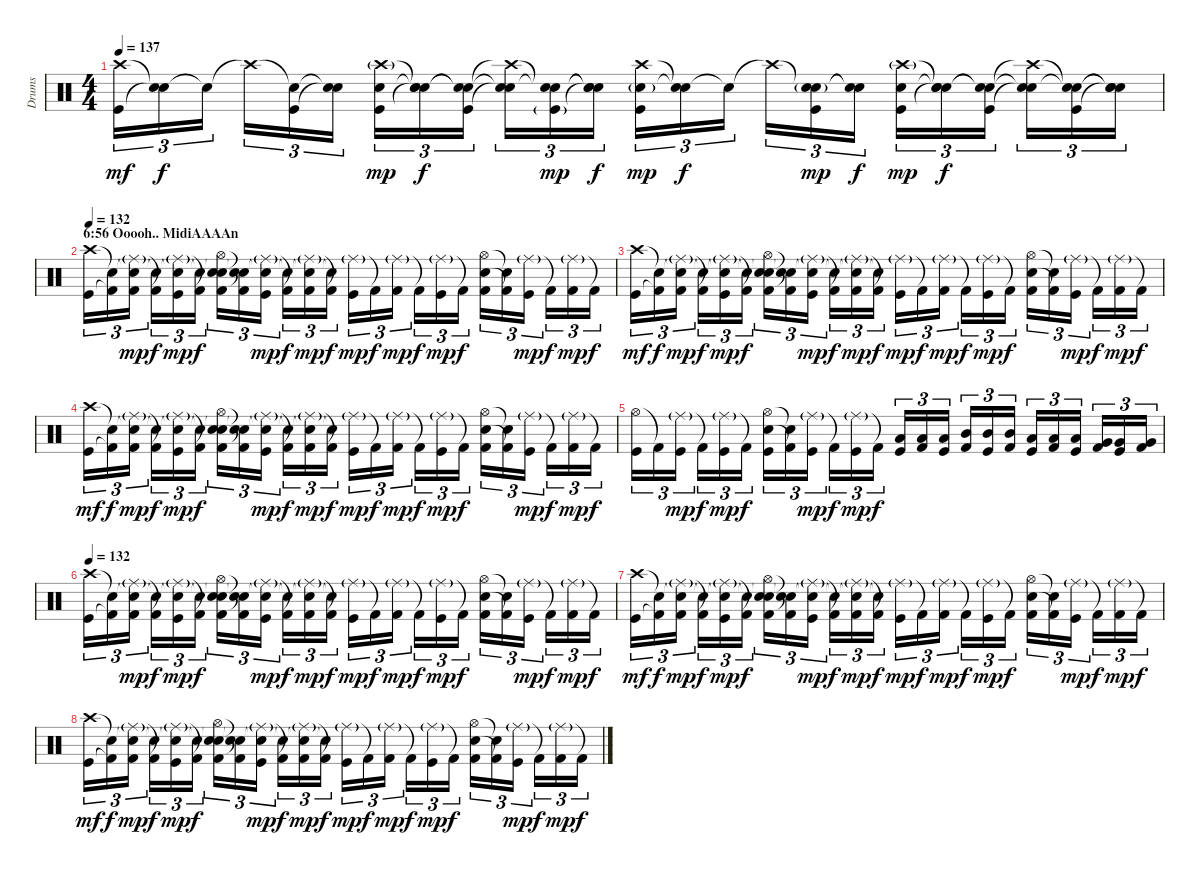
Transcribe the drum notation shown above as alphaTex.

\track ("Drums" "Drums") {instrument percussion}
\staff {score}
\articulation defaults
\ts (4 4)
\tempo 137
\clef neutral
\ks c
("Crash high (hit)" "Kick (hit)").16{tu (3 2) dy mf} ("Snare (hit)"{t} "Snare (hit)"{t}).16{tu (3 2) dy f} "Snare (hit)"{t}.16{tu (3 2)} "Crash high (hit)"{t}.16{tu (3 2)} ("Snare (hit)"{t} "Kick (hit)").16{tu (3 2)} ("Snare (hit)"{t} "Snare (hit)"{t}).16{tu (3 2)} ("Crash high (hit)"{g} "Snare (hit) 2" "Kick (hit)").16{tu (3 2) dy mp} ("Snare (hit)"{t} "Snare (hit)"{t} "Snare (hit)"{t}).16{tu (3 2) dy f} ("Snare (hit)"{t} "Snare (hit)"{t} "Kick (hit)").16{tu (3 2)} ("Crash high (hit)"{t} "Snare (hit)"{t} "Snare (hit)"{t}).16{tu (3 2)} ("Snare (hit)"{t} "Snare (hit)"{t} "Kick (hit)"{g}).16{tu (3 2) dy mp} ("Snare (hit)"{t} "Snare (hit)"{t} "Snare (hit)"{t}).16{tu (3 2) dy f} ("Crash high (hit)" "Snare (hit) 2"{g} "Kick (hit)").16{tu (3 2) dy mp} ("Snare (hit)"{t} "Snare (hit)"{t}).16{tu (3 2) dy f} "Snare (hit)"{t}.16{tu (3 2)} "Crash high (hit)"{t}.16{tu (3 2)} ("Snare (hit)"{t} "Snare (hit) 2"{g} "Kick (hit)").16{tu (3 2) dy mp} ("Snare (hit)"{t} "Snare (hit)"{t}).16{tu (3 2) dy f} ("Crash high (hit)"{g} "Snare (hit) 2" "Kick (hit)").16{tu (3 2) dy mp} ("Snare (hit)"{t} "Snare (hit)"{t} "Snare (hit)"{t}).16{tu (3 2) dy f} ("Snare (hit)"{t} "Snare (hit)"{t} "Kick (hit)").16{tu (3 2)} ("Crash high (hit)"{t} "Snare (hit)"{t} "Snare (hit)"{t}).16{tu (3 2)} ("Snare (hit)"{t} "Snare (hit) 2"{t} "Kick (hit)").16{tu (3 2)} ("Snare (hit)"{t} "Snare (hit)"{t} "Snare (hit)"{t}).16{tu (3 2)} |
\section ("" "6:56 Ooooh.. MidiAAAAn")
\tempo 132
("Crash high (hit)" "Kick (hit)").16{tu (3 2)} ("Snare (hit)"{t} "Kick (hit) 2"{t}).16{tu (3 2)} ("Snare (hit)"{t} "Ride (middle)"{g} "Kick (hit) 2").16{tu (3 2) dy mp} ("Snare (hit)"{t} "Kick (hit) 2"{t}).16{tu (3 2) dy f} ("Snare (hit)"{t} "Ride (middle)"{g} "Kick (hit)").16{tu (3 2) dy mp} ("Snare (hit)"{t} "Kick (hit) 2"{t}).16{tu (3 2) dy f} ("Snare (hit)"{t} "Hi-Hat (open)" "Snare (hit) 2" "Kick (hit) 2").16{tu (3 2)} ("Snare (hit)"{t} "Snare (hit)"{t} "Kick (hit) 2"{t}).16{tu (3 2)} ("Snare (hit)"{t} "Ride (middle)"{g} "Kick (hit)").16{tu (3 2) dy mp} ("Snare (hit)"{t} "Kick (hit) 2"{t}).16{tu (3 2) dy f} ("Snare (hit)"{t} "Ride (middle)"{g} "Kick (hit) 2").16{tu (3 2) dy mp} ("Snare (hit)"{t} "Kick (hit) 2"{t}).16{tu (3 2) dy f} ("Ride (middle)"{g} "Kick (hit)").16{tu (3 2) dy mp} "Kick (hit) 2"{t}.16{tu (3 2) dy f} ("Ride (middle)"{g} "Kick (hit) 2").16{tu (3 2) dy mp} "Kick (hit) 2"{t}.16{tu (3 2) dy f} ("Ride (middle)"{g} "Kick (hit)").16{tu (3 2) dy mp} "Kick (hit) 2"{t}.16{tu (3 2) dy f} ("Hi-Hat (open)" "Snare (hit) 2" "Kick (hit) 2").16{tu (3 2)} ("Snare (hit)"{t} "Kick (hit) 2"{t}).16{tu (3 2)} ("Ride (middle)"{g} "Kick (hit)").16{tu (3 2) dy mp} "Kick (hit) 2"{t}.16{tu (3 2) dy f} ("Ride (middle)"{g} "Kick (hit) 2").16{tu (3 2) dy mp} "Kick (hit) 2"{t}.16{tu (3 2) dy f} |
("Crash high (hit)" "Kick (hit)").16{tu (3 2) dy mf} ("Snare (hit)"{t} "Kick (hit) 2"{t}).16{tu (3 2) dy f} ("Snare (hit)"{t} "Ride (middle)"{g} "Kick (hit) 2").16{tu (3 2) dy mp} ("Snare (hit)"{t} "Kick (hit) 2"{t}).16{tu (3 2) dy f} ("Snare (hit)"{t} "Ride (middle)"{g} "Kick (hit)").16{tu (3 2) dy mp} ("Snare (hit)"{t} "Kick (hit) 2"{t}).16{tu (3 2) dy f} ("Snare (hit)"{t} "Hi-Hat (open)" "Snare (hit) 2" "Kick (hit) 2").16{tu (3 2)} ("Snare (hit)"{t} "Snare (hit)"{t} "Kick (hit) 2"{t}).16{tu (3 2)} ("Snare (hit)"{t} "Ride (middle)"{g} "Kick (hit)").16{tu (3 2) dy mp} ("Snare (hit)"{t} "Kick (hit) 2"{t}).16{tu (3 2) dy f} ("Snare (hit)"{t} "Ride (middle)"{g} "Kick (hit) 2").16{tu (3 2) dy mp} ("Snare (hit)"{t} "Kick (hit) 2"{t}).16{tu (3 2) dy f} ("Ride (middle)"{g} "Kick (hit)").16{tu (3 2) dy mp} "Kick (hit) 2"{t}.16{tu (3 2) dy f} ("Ride (middle)"{g} "Kick (hit) 2").16{tu (3 2) dy mp} "Kick (hit) 2"{t}.16{tu (3 2) dy f} ("Ride (middle)"{g} "Kick (hit)").16{tu (3 2) dy mp} "Kick (hit) 2"{t}.16{tu (3 2) dy f} ("Hi-Hat (open)" "Snare (hit) 2" "Kick (hit) 2").16{tu (3 2)} ("Snare (hit)"{t} "Kick (hit) 2"{t}).16{tu (3 2)} ("Ride (middle)"{g} "Kick (hit)").16{tu (3 2) dy mp} "Kick (hit) 2"{t}.16{tu (3 2) dy f} ("Ride (middle)"{g} "Kick (hit) 2").16{tu (3 2) dy mp} "Kick (hit) 2"{t}.16{tu (3 2) dy f} |
("Crash high (hit)" "Kick (hit)").16{tu (3 2) dy mf} ("Snare (hit)"{t} "Kick (hit) 2"{t}).16{tu (3 2) dy f} ("Snare (hit)"{t} "Ride (middle)"{g} "Kick (hit) 2").16{tu (3 2) dy mp} ("Snare (hit)"{t} "Kick (hit) 2"{t}).16{tu (3 2) dy f} ("Snare (hit)"{t} "Ride (middle)"{g} "Kick (hit)").16{tu (3 2) dy mp} ("Snare (hit)"{t} "Kick (hit) 2"{t}).16{tu (3 2) dy f} ("Snare (hit)"{t} "Hi-Hat (open)" "Snare (hit) 2" "Kick (hit) 2").16{tu (3 2)} ("Snare (hit)"{t} "Snare (hit)"{t} "Kick (hit) 2"{t}).16{tu (3 2)} ("Snare (hit)"{t} "Ride (middle)"{g} "Kick (hit)").16{tu (3 2) dy mp} ("Snare (hit)"{t} "Kick (hit) 2"{t}).16{tu (3 2) dy f} ("Snare (hit)"{t} "Ride (middle)"{g} "Kick (hit) 2").16{tu (3 2) dy mp} ("Snare (hit)"{t} "Kick (hit) 2"{t}).16{tu (3 2) dy f} ("Ride (middle)"{g} "Kick (hit)").16{tu (3 2) dy mp} "Kick (hit) 2"{t}.16{tu (3 2) dy f} ("Ride (middle)"{g} "Kick (hit) 2").16{tu (3 2) dy mp} "Kick (hit) 2"{t}.16{tu (3 2) dy f} ("Ride (middle)"{g} "Kick (hit)").16{tu (3 2) dy mp} "Kick (hit) 2"{t}.16{tu (3 2) dy f} ("Hi-Hat (open)" "Snare (hit) 2" "Kick (hit) 2").16{tu (3 2)} ("Snare (hit)"{t} "Kick (hit) 2"{t}).16{tu (3 2)} ("Ride (middle)"{g} "Kick (hit)").16{tu (3 2) dy mp} "Kick (hit) 2"{t}.16{tu (3 2) dy f} ("Ride (middle)"{g} "Kick (hit) 2").16{tu (3 2) dy mp} "Kick (hit) 2"{t}.16{tu (3 2) dy f} |
("Hi-Hat (open)" "Kick (hit)").16{tu (3 2)} "Kick (hit) 2"{t}.16{tu (3 2)} ("Ride (middle)"{g} "Kick (hit)").16{tu (3 2) dy mp} "Kick (hit) 2"{t}.16{tu (3 2) dy f} ("Ride (middle)"{g} "Kick (hit)").16{tu (3 2) dy mp} "Kick (hit) 2"{t}.16{tu (3 2) dy f} ("Hi-Hat (open)" "Snare (hit) 2" "Kick (hit)").16{tu (3 2)} ("Snare (hit)"{t} "Kick (hit) 2"{t}).16{tu (3 2)} ("Ride (middle)"{g} "Kick (hit)").16{tu (3 2) dy mp} "Kick (hit) 2"{t}.16{tu (3 2) dy f} ("Ride (middle)"{g} "Kick (hit)").16{tu (3 2) dy mp} "Kick (hit) 2"{t}.16{tu (3 2) dy f} ("Low Floor Tom (hit)" "Kick (hit)").16{tu (3 2)} ("Low Floor Tom (hit)" "Kick (hit) 2").16{tu (3 2)} ("Low Floor Tom (hit)" "Kick (hit)").16{tu (3 2)} ("Mid Tom (hit)" "Kick (hit) 2").16{tu (3 2)} ("Mid Tom (hit)" "Kick (hit)").16{tu (3 2)} ("Mid Tom (hit)" "Kick (hit) 2").16{tu (3 2)} ("Low Tom (hit)" "Kick (hit)").16{tu (3 2)} ("Low Tom (hit)" "Kick (hit) 2").16{tu (3 2)} ("Low Tom (hit)" "Kick (hit)").16{tu (3 2)} ("Very Low Tom (hit)" "Kick (hit) 2").16{tu (3 2)} ("Very Low Tom (hit)" "Kick (hit)").16{tu (3 2)} ("Very Low Tom (hit)" "Kick (hit) 2").16{tu (3 2)} |
\tempo 132
("Crash high (hit)" "Kick (hit)").16{tu (3 2)} ("Snare (hit)"{t} "Kick (hit) 2"{t}).16{tu (3 2)} ("Snare (hit)"{t} "Ride (middle)"{g} "Kick (hit) 2").16{tu (3 2) dy mp} ("Snare (hit)"{t} "Kick (hit) 2"{t}).16{tu (3 2) dy f} ("Snare (hit)"{t} "Ride (middle)"{g} "Kick (hit)").16{tu (3 2) dy mp} ("Snare (hit)"{t} "Kick (hit) 2"{t}).16{tu (3 2) dy f} ("Snare (hit)"{t} "Hi-Hat (open)" "Snare (hit) 2" "Kick (hit) 2").16{tu (3 2)} ("Snare (hit)"{t} "Snare (hit)"{t} "Kick (hit) 2"{t}).16{tu (3 2)} ("Snare (hit)"{t} "Ride (middle)"{g} "Kick (hit)").16{tu (3 2) dy mp} ("Snare (hit)"{t} "Kick (hit) 2"{t}).16{tu (3 2) dy f} ("Snare (hit)"{t} "Ride (middle)"{g} "Kick (hit) 2").16{tu (3 2) dy mp} ("Snare (hit)"{t} "Kick (hit) 2"{t}).16{tu (3 2) dy f} ("Ride (middle)"{g} "Kick (hit)").16{tu (3 2) dy mp} "Kick (hit) 2"{t}.16{tu (3 2) dy f} ("Ride (middle)"{g} "Kick (hit) 2").16{tu (3 2) dy mp} "Kick (hit) 2"{t}.16{tu (3 2) dy f} ("Ride (middle)"{g} "Kick (hit)").16{tu (3 2) dy mp} "Kick (hit) 2"{t}.16{tu (3 2) dy f} ("Hi-Hat (open)" "Snare (hit) 2" "Kick (hit) 2").16{tu (3 2)} ("Snare (hit)"{t} "Kick (hit) 2"{t}).16{tu (3 2)} ("Ride (middle)"{g} "Kick (hit)").16{tu (3 2) dy mp} "Kick (hit) 2"{t}.16{tu (3 2) dy f} ("Ride (middle)"{g} "Kick (hit) 2").16{tu (3 2) dy mp} "Kick (hit) 2"{t}.16{tu (3 2) dy f} |
("Crash high (hit)" "Kick (hit)").16{tu (3 2) dy mf} ("Snare (hit)"{t} "Kick (hit) 2"{t}).16{tu (3 2) dy f} ("Snare (hit)"{t} "Ride (middle)"{g} "Kick (hit) 2").16{tu (3 2) dy mp} ("Snare (hit)"{t} "Kick (hit) 2"{t}).16{tu (3 2) dy f} ("Snare (hit)"{t} "Ride (middle)"{g} "Kick (hit)").16{tu (3 2) dy mp} ("Snare (hit)"{t} "Kick (hit) 2"{t}).16{tu (3 2) dy f} ("Snare (hit)"{t} "Hi-Hat (open)" "Snare (hit) 2" "Kick (hit) 2").16{tu (3 2)} ("Snare (hit)"{t} "Snare (hit)"{t} "Kick (hit) 2"{t}).16{tu (3 2)} ("Snare (hit)"{t} "Ride (middle)"{g} "Kick (hit)").16{tu (3 2) dy mp} ("Snare (hit)"{t} "Kick (hit) 2"{t}).16{tu (3 2) dy f} ("Snare (hit)"{t} "Ride (middle)"{g} "Kick (hit) 2").16{tu (3 2) dy mp} ("Snare (hit)"{t} "Kick (hit) 2"{t}).16{tu (3 2) dy f} ("Ride (middle)"{g} "Kick (hit)").16{tu (3 2) dy mp} "Kick (hit) 2"{t}.16{tu (3 2) dy f} ("Ride (middle)"{g} "Kick (hit) 2").16{tu (3 2) dy mp} "Kick (hit) 2"{t}.16{tu (3 2) dy f} ("Ride (middle)"{g} "Kick (hit)").16{tu (3 2) dy mp} "Kick (hit) 2"{t}.16{tu (3 2) dy f} ("Hi-Hat (open)" "Snare (hit) 2" "Kick (hit) 2").16{tu (3 2)} ("Snare (hit)"{t} "Kick (hit) 2"{t}).16{tu (3 2)} ("Ride (middle)"{g} "Kick (hit)").16{tu (3 2) dy mp} "Kick (hit) 2"{t}.16{tu (3 2) dy f} ("Ride (middle)"{g} "Kick (hit) 2").16{tu (3 2) dy mp} "Kick (hit) 2"{t}.16{tu (3 2) dy f} |
("Crash high (hit)" "Kick (hit)").16{tu (3 2) dy mf} ("Snare (hit)"{t} "Kick (hit) 2"{t}).16{tu (3 2) dy f} ("Snare (hit)"{t} "Ride (middle)"{g} "Kick (hit) 2").16{tu (3 2) dy mp} ("Snare (hit)"{t} "Kick (hit) 2"{t}).16{tu (3 2) dy f} ("Snare (hit)"{t} "Ride (middle)"{g} "Kick (hit)").16{tu (3 2) dy mp} ("Snare (hit)"{t} "Kick (hit) 2"{t}).16{tu (3 2) dy f} ("Snare (hit)"{t} "Hi-Hat (open)" "Snare (hit) 2" "Kick (hit) 2").16{tu (3 2)} ("Snare (hit)"{t} "Snare (hit)"{t} "Kick (hit) 2"{t}).16{tu (3 2)} ("Snare (hit)"{t} "Ride (middle)"{g} "Kick (hit)").16{tu (3 2) dy mp} ("Snare (hit)"{t} "Kick (hit) 2"{t}).16{tu (3 2) dy f} ("Snare (hit)"{t} "Ride (middle)"{g} "Kick (hit) 2").16{tu (3 2) dy mp} ("Snare (hit)"{t} "Kick (hit) 2"{t}).16{tu (3 2) dy f} ("Ride (middle)"{g} "Kick (hit)").16{tu (3 2) dy mp} "Kick (hit) 2"{t}.16{tu (3 2) dy f} ("Ride (middle)"{g} "Kick (hit) 2").16{tu (3 2) dy mp} "Kick (hit) 2"{t}.16{tu (3 2) dy f} ("Ride (middle)"{g} "Kick (hit)").16{tu (3 2) dy mp} "Kick (hit) 2"{t}.16{tu (3 2) dy f} ("Hi-Hat (open)" "Snare (hit) 2" "Kick (hit) 2").16{tu (3 2)} ("Snare (hit)"{t} "Kick (hit) 2"{t}).16{tu (3 2)} ("Ride (middle)"{g} "Kick (hit)").16{tu (3 2) dy mp} "Kick (hit) 2"{t}.16{tu (3 2) dy f} ("Ride (middle)"{g} "Kick (hit) 2").16{tu (3 2) dy mp} "Kick (hit) 2"{t}.16{tu (3 2) dy f}
